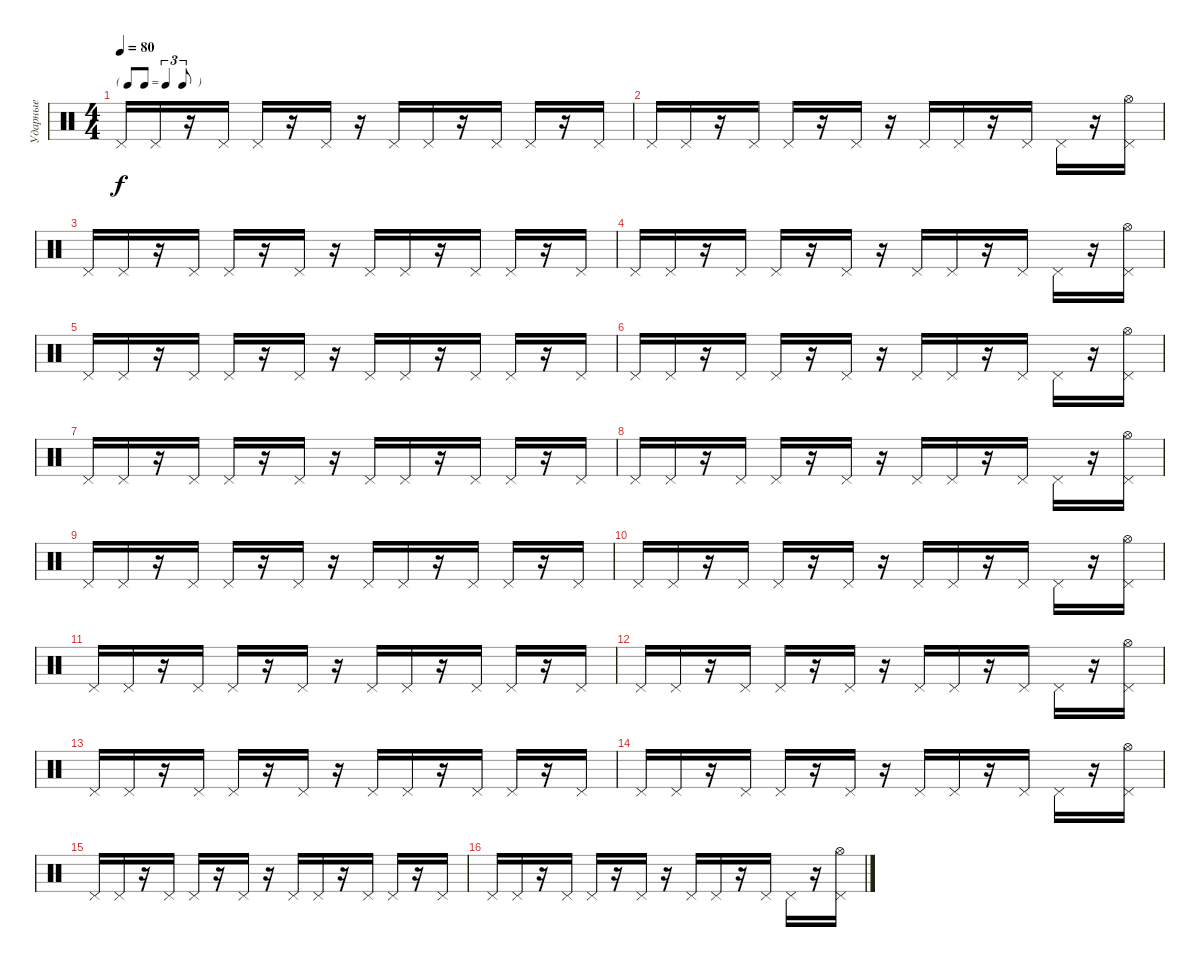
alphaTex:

\track ("Ударные" "Ударные") {instrument percussion}
\staff {score}
\articulation defaults
\ts (4 4)
\tf triplet8th
\tempo 80
\clef neutral
\ks c "Pedal Hi-Hat (hit)".16{dy f} "Pedal Hi-Hat (hit)".16
r.16 "Pedal Hi-Hat (hit)".16 "Pedal Hi-Hat (hit)".16 r.16 "Pedal Hi-Hat (hit)".16 r.16 "Pedal Hi-Hat (hit)".16 "Pedal Hi-Hat (hit)".16 r.16 "Pedal Hi-Hat (hit)".16 "Pedal Hi-Hat (hit)".16 r.16 "Pedal Hi-Hat (hit)".16 |
"Pedal Hi-Hat (hit)".16 "Pedal Hi-Hat (hit)".16 r.16 "Pedal Hi-Hat (hit)".16 "Pedal Hi-Hat (hit)".16 r.16 "Pedal Hi-Hat (hit)".16 r.16 "Pedal Hi-Hat (hit)".16 "Pedal Hi-Hat (hit)".16 r.16 "Pedal Hi-Hat (hit)".16 "Pedal Hi-Hat (hit)".16 r.16 ("Pedal Hi-Hat (hit)" "Hi-Hat (open)").16 |
"Pedal Hi-Hat (hit)".16 "Pedal Hi-Hat (hit)".16 r.16 "Pedal Hi-Hat (hit)".16 "Pedal Hi-Hat (hit)".16 r.16 "Pedal Hi-Hat (hit)".16 r.16 "Pedal Hi-Hat (hit)".16 "Pedal Hi-Hat (hit)".16 r.16 "Pedal Hi-Hat (hit)".16 "Pedal Hi-Hat (hit)".16 r.16 "Pedal Hi-Hat (hit)".16 |
"Pedal Hi-Hat (hit)".16 "Pedal Hi-Hat (hit)".16 r.16 "Pedal Hi-Hat (hit)".16 "Pedal Hi-Hat (hit)".16 r.16 "Pedal Hi-Hat (hit)".16 r.16 "Pedal Hi-Hat (hit)".16 "Pedal Hi-Hat (hit)".16 r.16 "Pedal Hi-Hat (hit)".16 "Pedal Hi-Hat (hit)".16 r.16 ("Pedal Hi-Hat (hit)" "Hi-Hat (open)").16 |
"Pedal Hi-Hat (hit)".16 "Pedal Hi-Hat (hit)".16 r.16 "Pedal Hi-Hat (hit)".16 "Pedal Hi-Hat (hit)".16 r.16 "Pedal Hi-Hat (hit)".16 r.16 "Pedal Hi-Hat (hit)".16 "Pedal Hi-Hat (hit)".16 r.16 "Pedal Hi-Hat (hit)".16 "Pedal Hi-Hat (hit)".16 r.16 "Pedal Hi-Hat (hit)".16 |
"Pedal Hi-Hat (hit)".16 "Pedal Hi-Hat (hit)".16 r.16 "Pedal Hi-Hat (hit)".16 "Pedal Hi-Hat (hit)".16 r.16 "Pedal Hi-Hat (hit)".16 r.16 "Pedal Hi-Hat (hit)".16 "Pedal Hi-Hat (hit)".16 r.16 "Pedal Hi-Hat (hit)".16 "Pedal Hi-Hat (hit)".16 r.16 ("Pedal Hi-Hat (hit)" "Hi-Hat (open)").16 |
"Pedal Hi-Hat (hit)".16 "Pedal Hi-Hat (hit)".16 r.16 "Pedal Hi-Hat (hit)".16 "Pedal Hi-Hat (hit)".16 r.16 "Pedal Hi-Hat (hit)".16 r.16 "Pedal Hi-Hat (hit)".16 "Pedal Hi-Hat (hit)".16 r.16 "Pedal Hi-Hat (hit)".16 "Pedal Hi-Hat (hit)".16 r.16 "Pedal Hi-Hat (hit)".16 |
"Pedal Hi-Hat (hit)".16 "Pedal Hi-Hat (hit)".16 r.16 "Pedal Hi-Hat (hit)".16 "Pedal Hi-Hat (hit)".16 r.16 "Pedal Hi-Hat (hit)".16 r.16 "Pedal Hi-Hat (hit)".16 "Pedal Hi-Hat (hit)".16 r.16 "Pedal Hi-Hat (hit)".16 "Pedal Hi-Hat (hit)".16 r.16 ("Pedal Hi-Hat (hit)" "Hi-Hat (open)").16 |
"Pedal Hi-Hat (hit)".16 "Pedal Hi-Hat (hit)".16 r.16 "Pedal Hi-Hat (hit)".16 "Pedal Hi-Hat (hit)".16 r.16 "Pedal Hi-Hat (hit)".16 r.16 "Pedal Hi-Hat (hit)".16 "Pedal Hi-Hat (hit)".16 r.16 "Pedal Hi-Hat (hit)".16 "Pedal Hi-Hat (hit)".16 r.16 "Pedal Hi-Hat (hit)".16 |
"Pedal Hi-Hat (hit)".16 "Pedal Hi-Hat (hit)".16 r.16 "Pedal Hi-Hat (hit)".16 "Pedal Hi-Hat (hit)".16 r.16 "Pedal Hi-Hat (hit)".16 r.16 "Pedal Hi-Hat (hit)".16 "Pedal Hi-Hat (hit)".16 r.16 "Pedal Hi-Hat (hit)".16 "Pedal Hi-Hat (hit)".16 r.16 ("Pedal Hi-Hat (hit)" "Hi-Hat (open)").16 |
"Pedal Hi-Hat (hit)".16 "Pedal Hi-Hat (hit)".16 r.16 "Pedal Hi-Hat (hit)".16 "Pedal Hi-Hat (hit)".16 r.16 "Pedal Hi-Hat (hit)".16 r.16 "Pedal Hi-Hat (hit)".16 "Pedal Hi-Hat (hit)".16 r.16 "Pedal Hi-Hat (hit)".16 "Pedal Hi-Hat (hit)".16 r.16 "Pedal Hi-Hat (hit)".16 |
"Pedal Hi-Hat (hit)".16 "Pedal Hi-Hat (hit)".16 r.16 "Pedal Hi-Hat (hit)".16 "Pedal Hi-Hat (hit)".16 r.16 "Pedal Hi-Hat (hit)".16 r.16 "Pedal Hi-Hat (hit)".16 "Pedal Hi-Hat (hit)".16 r.16 "Pedal Hi-Hat (hit)".16 "Pedal Hi-Hat (hit)".16 r.16 ("Pedal Hi-Hat (hit)" "Hi-Hat (open)").16 |
"Pedal Hi-Hat (hit)".16 "Pedal Hi-Hat (hit)".16 r.16 "Pedal Hi-Hat (hit)".16 "Pedal Hi-Hat (hit)".16 r.16 "Pedal Hi-Hat (hit)".16 r.16 "Pedal Hi-Hat (hit)".16 "Pedal Hi-Hat (hit)".16 r.16 "Pedal Hi-Hat (hit)".16 "Pedal Hi-Hat (hit)".16 r.16 "Pedal Hi-Hat (hit)".16 |
"Pedal Hi-Hat (hit)".16 "Pedal Hi-Hat (hit)".16 r.16 "Pedal Hi-Hat (hit)".16 "Pedal Hi-Hat (hit)".16 r.16 "Pedal Hi-Hat (hit)".16 r.16 "Pedal Hi-Hat (hit)".16 "Pedal Hi-Hat (hit)".16 r.16 "Pedal Hi-Hat (hit)".16 "Pedal Hi-Hat (hit)".16 r.16 ("Pedal Hi-Hat (hit)" "Hi-Hat (open)").16 |
"Pedal Hi-Hat (hit)".16 "Pedal Hi-Hat (hit)".16 r.16 "Pedal Hi-Hat (hit)".16 "Pedal Hi-Hat (hit)".16 r.16 "Pedal Hi-Hat (hit)".16 r.16 "Pedal Hi-Hat (hit)".16 "Pedal Hi-Hat (hit)".16 r.16 "Pedal Hi-Hat (hit)".16 "Pedal Hi-Hat (hit)".16 r.16 "Pedal Hi-Hat (hit)".16 |
"Pedal Hi-Hat (hit)".16 "Pedal Hi-Hat (hit)".16 r.16 "Pedal Hi-Hat (hit)".16 "Pedal Hi-Hat (hit)".16 r.16 "Pedal Hi-Hat (hit)".16 r.16 "Pedal Hi-Hat (hit)".16 "Pedal Hi-Hat (hit)".16 r.16 "Pedal Hi-Hat (hit)".16 "Pedal Hi-Hat (hit)".16 r.16 ("Pedal Hi-Hat (hit)" "Hi-Hat (open)").16
